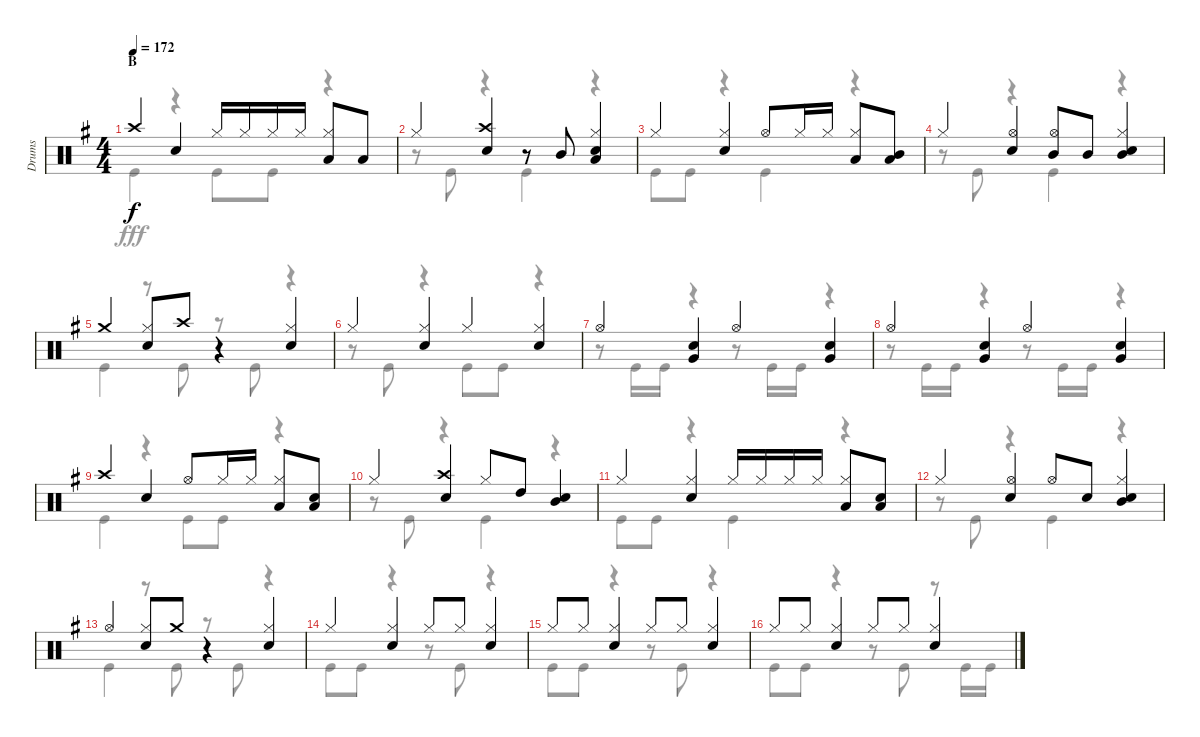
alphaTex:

\track ("Drums" "Drums") {instrument percussion}
\staff {score}
\articulation defaults
\voice
\ts (4 4)
\section ("" "B")
\tempo 172
\clef neutral
\ks g "Crash high (hit)".4{dy f} "Snare (hit) 2".4 "Hi-Hat (closed)".16 "Hi-Hat (closed)".16 "Hi-Hat (closed)".16 "Hi-Hat (closed)".16
("Hi-Hat (closed)" "Low Tom (hit)").8 "Low Tom (hit)".8 |
"Hi-Hat (closed)".4 ("Crash high (hit)" "Snare (hit) 2").4 r.8 "Mid Tom (hit)".8 ("Hi-Hat (closed)" "Snare (hit) 2" "Low Tom (hit)").4 |
"Hi-Hat (closed)".4 ("Hi-Hat (closed)" "Snare (hit) 2").4 "Hi-Hat (open)".8 "Hi-Hat (closed)".16 "Hi-Hat (closed)".16 ("Hi-Hat (closed)" "Low Tom (hit)").8 ("Mid Tom (hit)" "Low Tom (hit)").8 |
"Hi-Hat (closed)".4 ("Hi-Hat (open)" "Snare (hit) 2").4 ("Hi-Hat (open)" "Mid Tom (hit)").8 "Mid Tom (hit)".8 ("Hi-Hat (closed)" "Mid Tom (hit)" "Snare (hit) 2").4 |
"Crash medium (hit)".4 ("Hi-Hat (closed)" "Snare (hit) 2").8 "Crash high (hit)".8 r.4 ("Hi-Hat (closed)" "Snare (hit) 2").4 |
"Hi-Hat (closed)".4 ("Hi-Hat (closed)" "Snare (hit) 2").4 "Hi-Hat (closed)".4 ("Hi-Hat (closed)" "Snare (hit) 2").4 |
"Hi-Hat (open)".4 ("Snare (hit) 2" "Very Low Tom (hit)").4 "Hi-Hat (open)".4 ("Snare (hit) 2" "Very Low Tom (hit)").4 |
"Hi-Hat (open)".4 ("Snare (hit) 2" "Very Low Tom (hit)").4 "Hi-Hat (open)".4 ("Snare (hit) 2" "Very Low Tom (hit)").4 |
"Crash high (hit)".4 "Snare (hit) 2".4 "Hi-Hat (open)".8 "Hi-Hat (closed)".16 "Hi-Hat (closed)".16 ("Hi-Hat (closed)" "Low Tom (hit)").8 ("Snare (hit) 2" "Low Tom (hit)").8 |
"Hi-Hat (closed)".4 ("Crash high (hit)" "Snare (hit) 2").4 "Hi-Hat (closed)".8 "High Tom (hit)".8 ("Mid Tom (hit)" "Snare (hit) 2").4 |
"Hi-Hat (closed)".4 ("Hi-Hat (closed)" "Snare (hit) 2").4 "Hi-Hat (closed)".16 "Hi-Hat (closed)".16 "Hi-Hat (closed)".16 "Hi-Hat (closed)".16 ("Hi-Hat (closed)" "Low Tom (hit)").8 ("Snare (hit) 2" "Low Tom (hit)").8 |
"Hi-Hat (closed)".4 ("Hi-Hat (open)" "Snare (hit) 2").4 "Hi-Hat (open)".8 "Snare (hit) 2".8 ("Hi-Hat (closed)" "Mid Tom (hit)" "Snare (hit) 2").4 |
"Hi-Hat (open)".4 ("Hi-Hat (closed)" "Snare (hit) 2").8 "Crash medium (hit)".8 r.4 ("Hi-Hat (closed)" "Snare (hit) 2").4 |
"Hi-Hat (closed)".4 ("Hi-Hat (closed)" "Snare (hit) 2").4 "Hi-Hat (closed)".8 "Hi-Hat (closed)".8 ("Hi-Hat (closed)" "Snare (hit) 2").4 |
"Hi-Hat (closed)".8 "Hi-Hat (closed)".8 ("Hi-Hat (closed)" "Snare (hit) 2").4 "Hi-Hat (closed)".8 "Hi-Hat (closed)".8 ("Hi-Hat (closed)" "Snare (hit) 2").4 |
"Hi-Hat (closed)".8 "Hi-Hat (closed)".8 ("Hi-Hat (closed)" "Snare (hit) 2").4 "Hi-Hat (closed)".8 "Hi-Hat (closed)".8 ("Hi-Hat (closed)" "Snare (hit) 2").4
\voice
\clef neutral
\ottava regular
\simile none
\ks g "Kick (hit)".4{dy fff}
r.4 "Kick (hit)".8 "Kick (hit)".8 r.4 |
r.8 "Kick (hit)".8 r.4 "Kick (hit)".4 r.4 |
"Kick (hit)".8 "Kick (hit)".8 r.4 "Kick (hit)".4 r.4 |
r.8 "Kick (hit)".8 r.4 "Kick (hit)".4 r.4 |
"Kick (hit)".4 r.8 "Kick (hit)".8 r.8 "Kick (hit)".8 r.4 |
r.8 "Kick (hit)".8 r.4 "Kick (hit)".8 "Kick (hit)".8 r.4 |
r.8 "Kick (hit)".16 "Kick (hit)".16 r.4 r.8 "Kick (hit)".16 "Kick (hit)".16 r.4 |
r.8 "Kick (hit)".16 "Kick (hit)".16 r.4 r.8 "Kick (hit)".16 "Kick (hit)".16 r.4 |
"Kick (hit)".4 r.4 "Kick (hit)".8 "Kick (hit)".8 r.4 |
r.8 "Kick (hit)".8 r.4 "Kick (hit)".4 r.4 |
"Kick (hit)".8 "Kick (hit)".8 r.4 "Kick (hit)".4 r.4 |
r.8 "Kick (hit)".8 r.4 "Kick (hit)".4 r.4 |
"Kick (hit)".4 r.8 "Kick (hit)".8 r.8 "Kick (hit)".8 r.4 |
"Kick (hit)".8 "Kick (hit)".8 r.4 r.8 "Kick (hit)".8 r.4 |
"Kick (hit)".8 "Kick (hit)".8 r.4 r.8 "Kick (hit)".8 r.4 |
"Kick (hit)".8 "Kick (hit)".8 r.4 r.8 "Kick (hit)".8 r.8 "Kick (hit)".16 "Kick (hit)".16
